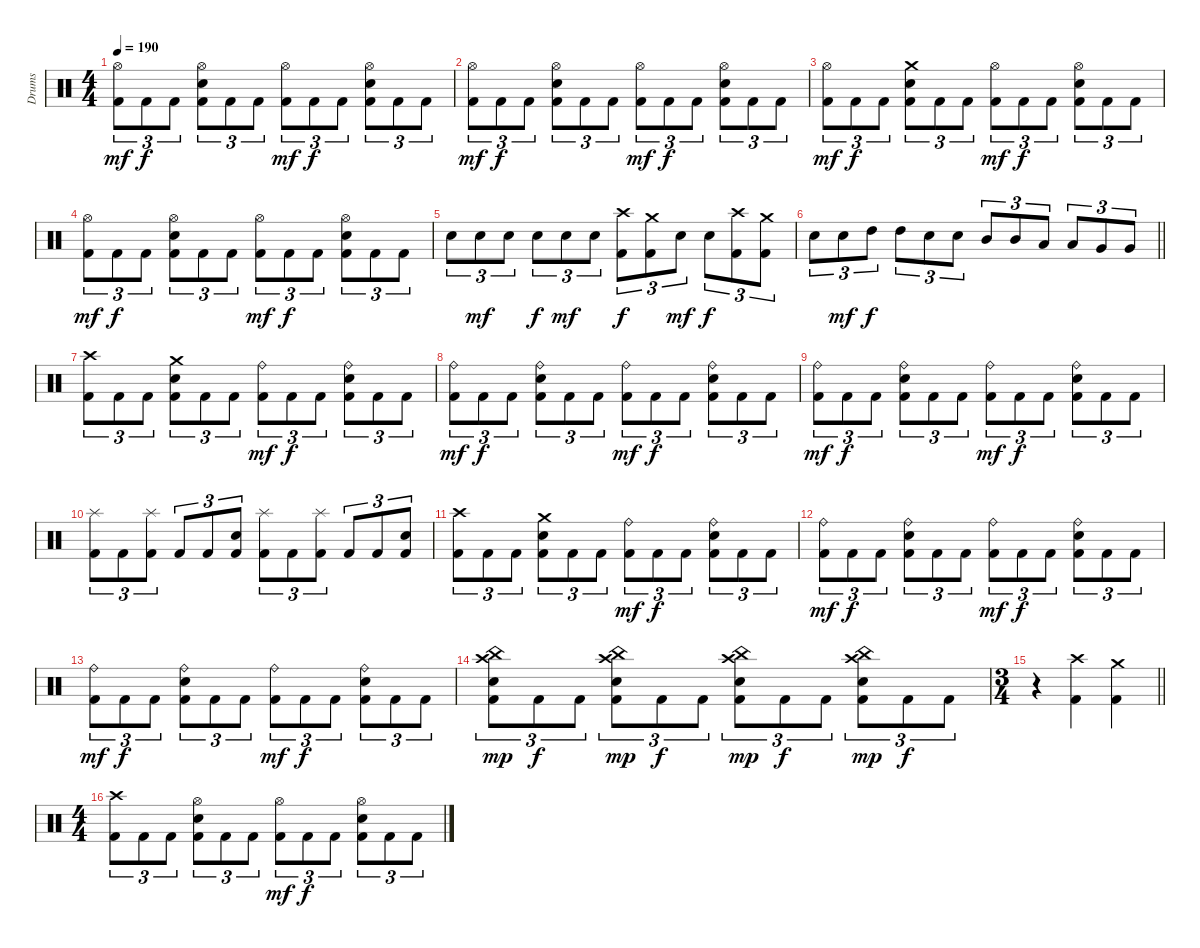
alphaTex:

\track ("Drums" "Drums") {instrument percussion}
\staff {score}
\articulation defaults
\ts (4 4)
\tempo 190
\clef neutral
\ks c
("Hi-Hat (open)" "Kick (hit) 2").8{tu (3 2) dy mf} "Kick (hit) 2".8{tu (3 2) dy f} "Kick (hit) 2".8{tu (3 2)} ("Hi-Hat (open)" "Electric Snare (hit)" "Kick (hit) 2").8{tu (3 2)} "Kick (hit) 2".8{tu (3 2)} "Kick (hit) 2".8{tu (3 2)} ("Hi-Hat (open)" "Kick (hit) 2").8{tu (3 2) dy mf} "Kick (hit) 2".8{tu (3 2) dy f} "Kick (hit) 2".8{tu (3 2)} ("Hi-Hat (open)" "Electric Snare (hit)" "Kick (hit) 2").8{tu (3 2)} "Kick (hit) 2".8{tu (3 2)} "Kick (hit) 2".8{tu (3 2)} |
("Hi-Hat (open)" "Kick (hit) 2").8{tu (3 2) dy mf} "Kick (hit) 2".8{tu (3 2) dy f} "Kick (hit) 2".8{tu (3 2)} ("Hi-Hat (open)" "Electric Snare (hit)" "Kick (hit) 2").8{tu (3 2)} "Kick (hit) 2".8{tu (3 2)} "Kick (hit) 2".8{tu (3 2)} ("Hi-Hat (open)" "Kick (hit) 2").8{tu (3 2) dy mf} "Kick (hit) 2".8{tu (3 2) dy f} "Kick (hit) 2".8{tu (3 2)} ("Hi-Hat (open)" "Electric Snare (hit)" "Kick (hit) 2").8{tu (3 2)} "Kick (hit) 2".8{tu (3 2)} "Kick (hit) 2".8{tu (3 2)} |
("Hi-Hat (open)" "Kick (hit) 2").8{tu (3 2) dy mf} "Kick (hit) 2".8{tu (3 2) dy f} "Kick (hit) 2".8{tu (3 2)} ("Crash medium (hit)" "Electric Snare (hit)" "Kick (hit) 2").8{tu (3 2)} "Kick (hit) 2".8{tu (3 2)} "Kick (hit) 2".8{tu (3 2)} ("Hi-Hat (open)" "Kick (hit) 2").8{tu (3 2) dy mf} "Kick (hit) 2".8{tu (3 2) dy f} "Kick (hit) 2".8{tu (3 2)} ("Hi-Hat (open)" "Electric Snare (hit)" "Kick (hit) 2").8{tu (3 2)} "Kick (hit) 2".8{tu (3 2)} "Kick (hit) 2".8{tu (3 2)} |
("Hi-Hat (open)" "Kick (hit) 2").8{tu (3 2) dy mf} "Kick (hit) 2".8{tu (3 2) dy f} "Kick (hit) 2".8{tu (3 2)} ("Hi-Hat (open)" "Electric Snare (hit)" "Kick (hit) 2").8{tu (3 2)} "Kick (hit) 2".8{tu (3 2)} "Kick (hit) 2".8{tu (3 2)} ("Hi-Hat (open)" "Kick (hit) 2").8{tu (3 2) dy mf} "Kick (hit) 2".8{tu (3 2) dy f} "Kick (hit) 2".8{tu (3 2)} ("Hi-Hat (open)" "Electric Snare (hit)" "Kick (hit) 2").8{tu (3 2)} "Kick (hit) 2".8{tu (3 2)} "Kick (hit) 2".8{tu (3 2)} |
"Electric Snare (hit)".8{tu (3 2)} "Electric Snare (hit)".8{tu (3 2) dy mf} "Electric Snare (hit)".8{tu (3 2)} "Electric Snare (hit)".8{tu (3 2) dy f} "Electric Snare (hit)".8{tu (3 2) dy mf} "Electric Snare (hit)".8{tu (3 2)} ("Crash high (hit)" "Kick (hit) 2").8{tu (3 2) dy f} ("Crash medium (hit)" "Kick (hit) 2").8{tu (3 2)} "Electric Snare (hit)".8{tu (3 2) dy mf} "Electric Snare (hit)".8{tu (3 2) dy f} ("Crash high (hit)" "Kick (hit) 2").8{tu (3 2)} ("Crash medium (hit)" "Kick (hit) 2").8{tu (3 2)} |
\barLineRight lightlight "Electric Snare (hit)".8{tu (3 2)} "Electric Snare (hit)".8{tu (3 2) dy mf} "High Tom (hit)".8{tu (3 2) dy f} "High Tom (hit)".8{tu (3 2)} "Electric Snare (hit)".8{tu (3 2)} "Electric Snare (hit)".8{tu (3 2)} "Mid Tom (hit)".8{tu (3 2)} "Mid Tom (hit)".8{tu (3 2)} "Low Tom (hit)".8{tu (3 2)} "Low Tom (hit)".8{tu (3 2)} "Very Low Tom (hit)".8{tu (3 2)} "Very Low Tom (hit)".8{tu (3 2)}
|
("Crash high (hit)" "Kick (hit) 2").8{tu (3 2)} "Kick (hit) 2".8{tu (3 2)} "Kick (hit) 2".8{tu (3 2)} ("Crash medium (hit)" "Electric Snare (hit)" "Kick (hit) 2").8{tu (3 2)} "Kick (hit) 2".8{tu (3 2)} "Kick (hit) 2".8{tu (3 2)} ("Ride (bell)" "Kick (hit) 2").8{tu (3 2) dy mf} "Kick (hit) 2".8{tu (3 2) dy f} "Kick (hit) 2".8{tu (3 2)} ("Ride (bell)" "Electric Snare (hit)" "Kick (hit) 2").8{tu (3 2)} "Kick (hit) 2".8{tu (3 2)} "Kick (hit) 2".8{tu (3 2)} |
("Ride (bell)" "Kick (hit) 2").8{tu (3 2) dy mf} "Kick (hit) 2".8{tu (3 2) dy f} "Kick (hit) 2".8{tu (3 2)} ("Ride (bell)" "Electric Snare (hit)" "Kick (hit) 2").8{tu (3 2)} "Kick (hit) 2".8{tu (3 2)} "Kick (hit) 2".8{tu (3 2)} ("Ride (bell)" "Kick (hit) 2").8{tu (3 2) dy mf} "Kick (hit) 2".8{tu (3 2) dy f} "Kick (hit) 2".8{tu (3 2)} ("Ride (bell)" "Electric Snare (hit)" "Kick (hit) 2").8{tu (3 2)} "Kick (hit) 2".8{tu (3 2)} "Kick (hit) 2".8{tu (3 2)} |
("Ride (bell)" "Kick (hit) 2").8{tu (3 2) dy mf} "Kick (hit) 2".8{tu (3 2) dy f} "Kick (hit) 2".8{tu (3 2)} ("Ride (bell)" "Electric Snare (hit)" "Kick (hit) 2").8{tu (3 2)} "Kick (hit) 2".8{tu (3 2)} "Kick (hit) 2".8{tu (3 2)} ("Ride (bell)" "Kick (hit) 2").8{tu (3 2) dy mf} "Kick (hit) 2".8{tu (3 2) dy f} "Kick (hit) 2".8{tu (3 2)} ("Ride (bell)" "Electric Snare (hit)" "Kick (hit) 2").8{tu (3 2)} "Kick (hit) 2".8{tu (3 2)} "Kick (hit) 2".8{tu (3 2)} |
("Splash (hit)" "Kick (hit) 2").8{tu (3 2)} "Kick (hit) 2".8{tu (3 2)} ("Splash (hit)" "Kick (hit) 2").8{tu (3 2)} "Kick (hit) 2".8{tu (3 2)} "Kick (hit) 2".8{tu (3 2)} ("Electric Snare (hit)" "Kick (hit) 2").8{tu (3 2)} ("Splash (hit)" "Kick (hit) 2").8{tu (3 2)} "Kick (hit) 2".8{tu (3 2)} ("Splash (hit)" "Kick (hit) 2").8{tu (3 2)} "Kick (hit) 2".8{tu (3 2)} "Kick (hit) 2".8{tu (3 2)} ("Electric Snare (hit)" "Kick (hit) 2").8{tu (3 2)} |
("Crash high (hit)" "Kick (hit) 2").8{tu (3 2)} "Kick (hit) 2".8{tu (3 2)} "Kick (hit) 2".8{tu (3 2)} ("Crash medium (hit)" "Electric Snare (hit)" "Kick (hit) 2").8{tu (3 2)} "Kick (hit) 2".8{tu (3 2)} "Kick (hit) 2".8{tu (3 2)} ("Ride (bell)" "Kick (hit) 2").8{tu (3 2) dy mf} "Kick (hit) 2".8{tu (3 2) dy f} "Kick (hit) 2".8{tu (3 2)} ("Ride (bell)" "Electric Snare (hit)" "Kick (hit) 2").8{tu (3 2)} "Kick (hit) 2".8{tu (3 2)} "Kick (hit) 2".8{tu (3 2)} |
("Ride (bell)" "Kick (hit) 2").8{tu (3 2) dy mf} "Kick (hit) 2".8{tu (3 2) dy f} "Kick (hit) 2".8{tu (3 2)} ("Ride (bell)" "Electric Snare (hit)" "Kick (hit) 2").8{tu (3 2)} "Kick (hit) 2".8{tu (3 2)} "Kick (hit) 2".8{tu (3 2)} ("Ride (bell)" "Kick (hit) 2").8{tu (3 2) dy mf} "Kick (hit) 2".8{tu (3 2) dy f} "Kick (hit) 2".8{tu (3 2)} ("Ride (bell)" "Electric Snare (hit)" "Kick (hit) 2").8{tu (3 2)} "Kick (hit) 2".8{tu (3 2)} "Kick (hit) 2".8{tu (3 2)} |
("Ride (bell)" "Kick (hit) 2").8{tu (3 2) dy mf} "Kick (hit) 2".8{tu (3 2) dy f} "Kick (hit) 2".8{tu (3 2)} ("Ride (bell)" "Electric Snare (hit)" "Kick (hit) 2").8{tu (3 2)} "Kick (hit) 2".8{tu (3 2)} "Kick (hit) 2".8{tu (3 2)} ("Ride (bell)" "Kick (hit) 2").8{tu (3 2) dy mf} "Kick (hit) 2".8{tu (3 2) dy f} "Kick (hit) 2".8{tu (3 2)} ("Ride (bell)" "Electric Snare (hit)" "Kick (hit) 2").8{tu (3 2)} "Kick (hit) 2".8{tu (3 2)} "Kick (hit) 2".8{tu (3 2)} |
("Crash high (hit)" "China (hit)" "Electric Snare (hit)" "Kick (hit) 2").8{tu (3 2) dy mp} "Kick (hit) 2".8{tu (3 2) dy f} "Kick (hit) 2".8{tu (3 2)} ("Crash high (hit)" "China (hit)" "Electric Snare (hit)" "Kick (hit) 2").8{tu (3 2) dy mp} "Kick (hit) 2".8{tu (3 2) dy f} "Kick (hit) 2".8{tu (3 2)} ("Crash high (hit)" "China (hit)" "Electric Snare (hit)" "Kick (hit) 2").8{tu (3 2) dy mp} "Kick (hit) 2".8{tu (3 2) dy f} "Kick (hit) 2".8{tu (3 2)} ("Crash high (hit)" "China (hit)" "Electric Snare (hit)" "Kick (hit) 2").8{tu (3 2) dy mp} "Kick (hit) 2".8{tu (3 2) dy f} "Kick (hit) 2".8{tu (3 2)} |
\ts (3 4)
\barLineRight lightlight
r.4 ("Crash high (hit)" "Kick (hit) 2").4 ("Crash medium (hit)" "Kick (hit) 2").4 |
\ts (4 4)
("Crash high (hit)" "Kick (hit) 2").8{tu (3 2)} "Kick (hit) 2".8{tu (3 2)} "Kick (hit) 2".8{tu (3 2)} ("Hi-Hat (open)" "Electric Snare (hit)" "Kick (hit) 2").8{tu (3 2)} "Kick (hit) 2".8{tu (3 2)} "Kick (hit) 2".8{tu (3 2)} ("Hi-Hat (open)" "Kick (hit) 2").8{tu (3 2) dy mf} "Kick (hit) 2".8{tu (3 2) dy f} "Kick (hit) 2".8{tu (3 2)} ("Hi-Hat (open)" "Electric Snare (hit)" "Kick (hit) 2").8{tu (3 2)} "Kick (hit) 2".8{tu (3 2)} "Kick (hit) 2".8{tu (3 2)}
